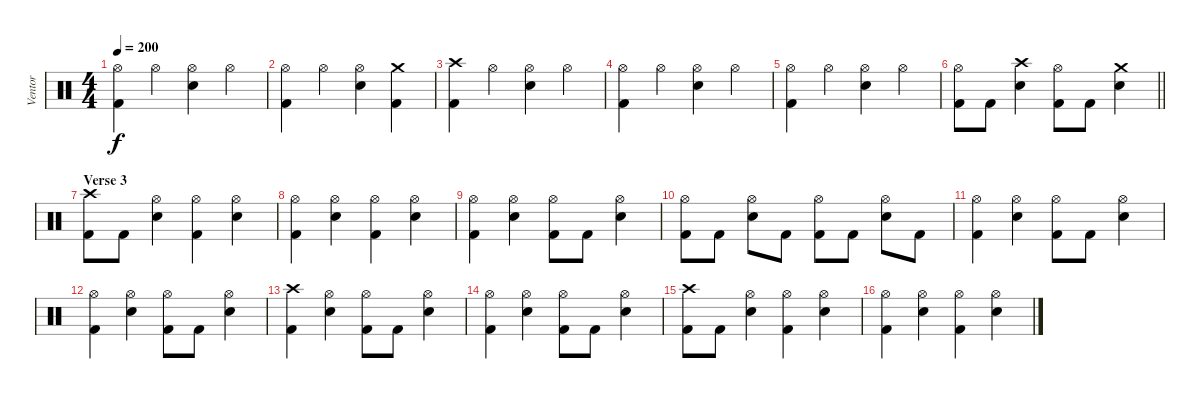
\track ("Ventor" "Ventor") {instrument percussion}
\staff {score}
\articulation defaults
\ts (4 4)
\tempo 200
\clef neutral
\ks c
("Hi-Hat (open)" "Kick (hit) 2").4{dy f} "Hi-Hat (open)".4 ("Hi-Hat (open)" "Electric Snare (hit)").4 "Hi-Hat (open)".4 |
("Hi-Hat (open)" "Kick (hit) 2").4 "Hi-Hat (open)".4 ("Hi-Hat (open)" "Electric Snare (hit)").4 ("Crash medium (hit)" "Kick (hit) 2").4 |
("Crash high (hit)" "Kick (hit) 2").4 "Hi-Hat (open)".4 ("Hi-Hat (open)" "Electric Snare (hit)").4 "Hi-Hat (open)".4 |
("Hi-Hat (open)" "Kick (hit) 2").4 "Hi-Hat (open)".4 ("Hi-Hat (open)" "Electric Snare (hit)").4 "Hi-Hat (open)".4 |
("Hi-Hat (open)" "Kick (hit) 2").4 "Hi-Hat (open)".4 ("Hi-Hat (open)" "Electric Snare (hit)").4 "Hi-Hat (open)".4 |
\barLineRight lightlight
("Hi-Hat (open)" "Kick (hit) 2").8 "Kick (hit) 2".8 ("Crash high (hit)" "Electric Snare (hit)").4 ("Hi-Hat (open)" "Kick (hit) 2").8 "Kick (hit) 2".8 ("Crash medium (hit)" "Electric Snare (hit)").4 |
\section ("" "Verse 3")
("Crash high (hit)" "Kick (hit) 2").8 "Kick (hit) 2".8 ("Hi-Hat (open)" "Electric Snare (hit)").4 ("Hi-Hat (open)" "Kick (hit) 2").4 ("Hi-Hat (open)" "Electric Snare (hit)").4 |
("Hi-Hat (open)" "Kick (hit) 2").4 ("Hi-Hat (open)" "Electric Snare (hit)").4 ("Hi-Hat (open)" "Kick (hit) 2").4 ("Hi-Hat (open)" "Electric Snare (hit)").4 |
("Hi-Hat (open)" "Kick (hit) 2").4 ("Hi-Hat (open)" "Electric Snare (hit)").4 ("Hi-Hat (open)" "Kick (hit) 2").8 "Kick (hit) 2".8 ("Hi-Hat (open)" "Electric Snare (hit)").4 |
("Hi-Hat (open)" "Kick (hit) 2").8 "Kick (hit) 2".8 ("Hi-Hat (open)" "Electric Snare (hit)").8 "Kick (hit) 2".8 ("Hi-Hat (open)" "Kick (hit) 2").8 "Kick (hit) 2".8 ("Hi-Hat (open)" "Electric Snare (hit)").8 "Kick (hit) 2".8 |
("Hi-Hat (open)" "Kick (hit) 2").4 ("Hi-Hat (open)" "Electric Snare (hit)").4 ("Hi-Hat (open)" "Kick (hit) 2").8 "Kick (hit) 2".8 ("Hi-Hat (open)" "Electric Snare (hit)").4 |
("Hi-Hat (open)" "Kick (hit) 2").4 ("Hi-Hat (open)" "Electric Snare (hit)").4 ("Hi-Hat (open)" "Kick (hit) 2").8 "Kick (hit) 2".8 ("Hi-Hat (open)" "Electric Snare (hit)").4 |
("Crash high (hit)" "Kick (hit) 2").4 ("Hi-Hat (open)" "Electric Snare (hit)").4 ("Hi-Hat (open)" "Kick (hit) 2").8 "Kick (hit) 2".8 ("Hi-Hat (open)" "Electric Snare (hit)").4 |
("Hi-Hat (open)" "Kick (hit) 2").4 ("Hi-Hat (open)" "Electric Snare (hit)").4 ("Hi-Hat (open)" "Kick (hit) 2").8 "Kick (hit) 2".8 ("Hi-Hat (open)" "Electric Snare (hit)").4 |
("Crash high (hit)" "Kick (hit) 2").8 "Kick (hit) 2".8 ("Hi-Hat (open)" "Electric Snare (hit)").4 ("Hi-Hat (open)" "Kick (hit) 2").4 ("Hi-Hat (open)" "Electric Snare (hit)").4 |
("Hi-Hat (open)" "Kick (hit) 2").4 ("Hi-Hat (open)" "Electric Snare (hit)").4 ("Hi-Hat (open)" "Kick (hit) 2").4 ("Hi-Hat (open)" "Electric Snare (hit)").4
